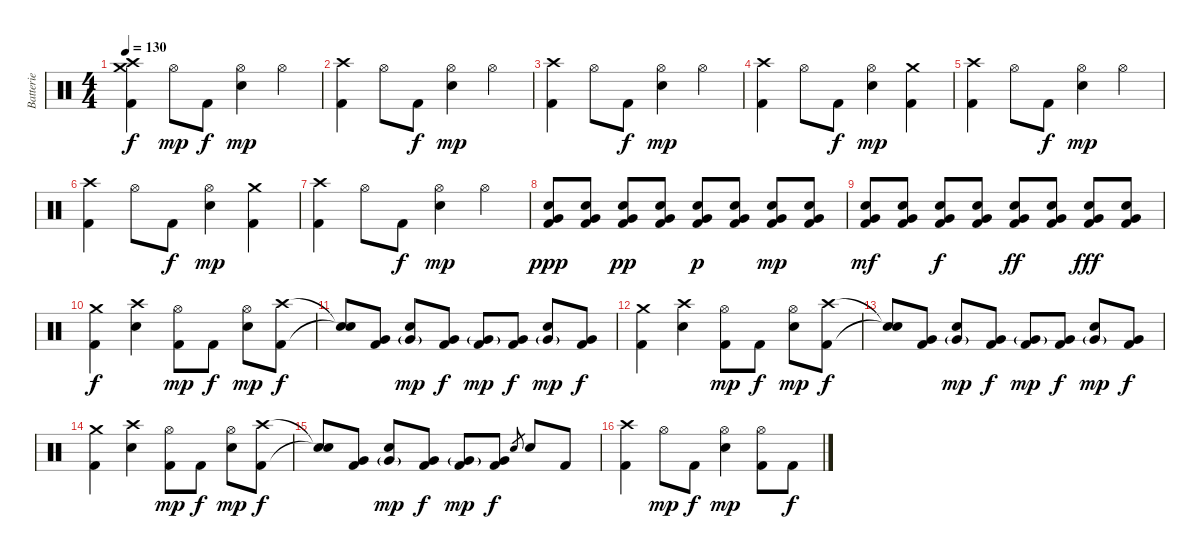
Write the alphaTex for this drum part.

\track ("Batterie" "Batterie") {instrument percussion}
\staff {score}
\articulation defaults
\ts (4 4)
\tempo 130
\clef neutral
\ks c
("Crash medium (hit)" "Crash high (hit)" "Kick (hit) 2").4{dy f} "Hi-Hat (open)".8{dy mp} "Kick (hit) 2".8{dy f} ("Hi-Hat (open)" "Electric Snare (hit)").4{dy mp} "Hi-Hat (open)".4 |
("Crash high (hit)" "Kick (hit) 2").4 "Hi-Hat (open)".8 "Kick (hit) 2".8{dy f} ("Hi-Hat (open)" "Electric Snare (hit)").4{dy mp} "Hi-Hat (open)".4 |
("Crash high (hit)" "Kick (hit) 2").4 "Hi-Hat (open)".8 "Kick (hit) 2".8{dy f} ("Hi-Hat (open)" "Electric Snare (hit)").4{dy mp} "Hi-Hat (open)".4 |
("Crash high (hit)" "Kick (hit) 2").4 "Hi-Hat (open)".8 "Kick (hit) 2".8{dy f} ("Hi-Hat (open)" "Electric Snare (hit)").4{dy mp} ("Crash medium (hit)" "Kick (hit) 2").4 |
("Crash high (hit)" "Kick (hit) 2").4 "Hi-Hat (open)".8 "Kick (hit) 2".8{dy f} ("Hi-Hat (open)" "Electric Snare (hit)").4{dy mp} "Hi-Hat (open)".4 |
("Crash high (hit)" "Kick (hit) 2").4 "Hi-Hat (open)".8 "Kick (hit) 2".8{dy f} ("Hi-Hat (open)" "Electric Snare (hit)").4{dy mp} ("Crash medium (hit)" "Kick (hit) 2").4 |
("Crash high (hit)" "Kick (hit) 2").4 "Hi-Hat (open)".8 "Kick (hit) 2".8{dy f} ("Hi-Hat (open)" "Electric Snare (hit)").4{dy mp} "Hi-Hat (open)".4 |
("Electric Snare (hit)" "Very Low Tom (hit)" "Kick (hit) 2").8{dy ppp} ("Electric Snare (hit)" "Very Low Tom (hit)" "Kick (hit) 2").8 ("Electric Snare (hit)" "Very Low Tom (hit)" "Kick (hit) 2").8{dy pp} ("Electric Snare (hit)" "Very Low Tom (hit)" "Kick (hit) 2").8 ("Electric Snare (hit)" "Very Low Tom (hit)" "Kick (hit) 2").8{dy p} ("Electric Snare (hit)" "Very Low Tom (hit)" "Kick (hit) 2").8 ("Electric Snare (hit)" "Very Low Tom (hit)" "Kick (hit) 2").8{dy mp} ("Electric Snare (hit)" "Very Low Tom (hit)" "Kick (hit) 2").8 |
("Electric Snare (hit)" "Very Low Tom (hit)" "Kick (hit) 2").8{dy mf} ("Electric Snare (hit)" "Very Low Tom (hit)" "Kick (hit) 2").8 ("Electric Snare (hit)" "Very Low Tom (hit)" "Kick (hit) 2").8{dy f} ("Electric Snare (hit)" "Very Low Tom (hit)" "Kick (hit) 2").8 ("Electric Snare (hit)" "Very Low Tom (hit)" "Kick (hit) 2").8{dy ff} ("Electric Snare (hit)" "Very Low Tom (hit)" "Kick (hit) 2").8 ("Electric Snare (hit)" "Very Low Tom (hit)" "Kick (hit) 2").8{dy fff} ("Electric Snare (hit)" "Very Low Tom (hit)" "Kick (hit) 2").8 |
("Crash medium (hit)" "Kick (hit) 2").4{dy f} ("Crash high (hit)" "Electric Snare (hit)").4 ("Hi-Hat (open)" "Kick (hit) 2").8{dy mp} "Kick (hit) 2".8{dy f} ("Hi-Hat (open)" "Electric Snare (hit)").8{dy mp} ("Crash high (hit)" "Kick (hit) 2").8{dy f} |
("Snare (hit)"{t} "Snare (hit)"{t}).8 ("Very Low Tom (hit)" "Kick (hit) 2").8 ("Electric Snare (hit)" "Very Low Tom (hit)"{g}).8{dy mp} ("Very Low Tom (hit)" "Kick (hit) 2").8{dy f} ("Very Low Tom (hit)"{g} "Kick (hit) 2").8{dy mp} ("Very Low Tom (hit)" "Kick (hit) 2").8{dy f} ("Electric Snare (hit)" "Very Low Tom (hit)"{g}).8{dy mp} ("Very Low Tom (hit)" "Kick (hit) 2").8{dy f} |
("Crash medium (hit)" "Kick (hit) 2").4 ("Crash high (hit)" "Electric Snare (hit)").4 ("Hi-Hat (open)" "Kick (hit) 2").8{dy mp} "Kick (hit) 2".8{dy f} ("Hi-Hat (open)" "Electric Snare (hit)").8{dy mp} ("Crash high (hit)" "Kick (hit) 2").8{dy f} |
("Snare (hit)"{t} "Snare (hit)"{t}).8 ("Very Low Tom (hit)" "Kick (hit) 2").8 ("Electric Snare (hit)" "Very Low Tom (hit)"{g}).8{dy mp} ("Very Low Tom (hit)" "Kick (hit) 2").8{dy f} ("Very Low Tom (hit)"{g} "Kick (hit) 2").8{dy mp} ("Very Low Tom (hit)" "Kick (hit) 2").8{dy f} ("Electric Snare (hit)" "Very Low Tom (hit)"{g}).8{dy mp} ("Very Low Tom (hit)" "Kick (hit) 2").8{dy f} |
("Crash medium (hit)" "Kick (hit) 2").4 ("Crash high (hit)" "Electric Snare (hit)").4 ("Hi-Hat (open)" "Kick (hit) 2").8{dy mp} "Kick (hit) 2".8{dy f} ("Hi-Hat (open)" "Electric Snare (hit)").8{dy mp} ("Crash high (hit)" "Kick (hit) 2").8{dy f} |
("Snare (hit)"{t} "Snare (hit)"{t}).8 ("Very Low Tom (hit)" "Kick (hit) 2").8 ("Electric Snare (hit)" "Very Low Tom (hit)"{g}).8{dy mp} ("Very Low Tom (hit)" "Kick (hit) 2").8{dy f} ("Very Low Tom (hit)"{g} "Kick (hit) 2").8{dy mp} ("Very Low Tom (hit)" "Kick (hit) 2").8{dy f} "Electric Snare (hit)".8{gr} "Electric Snare (hit)".8 "Kick (hit) 2".8 |
("Crash high (hit)" "Kick (hit) 2").4 "Hi-Hat (open)".8{dy mp} "Kick (hit) 2".8{dy f} ("Hi-Hat (open)" "Electric Snare (hit)").4{dy mp} ("Hi-Hat (open)" "Kick (hit) 2").8 "Kick (hit) 2".8{dy f}
